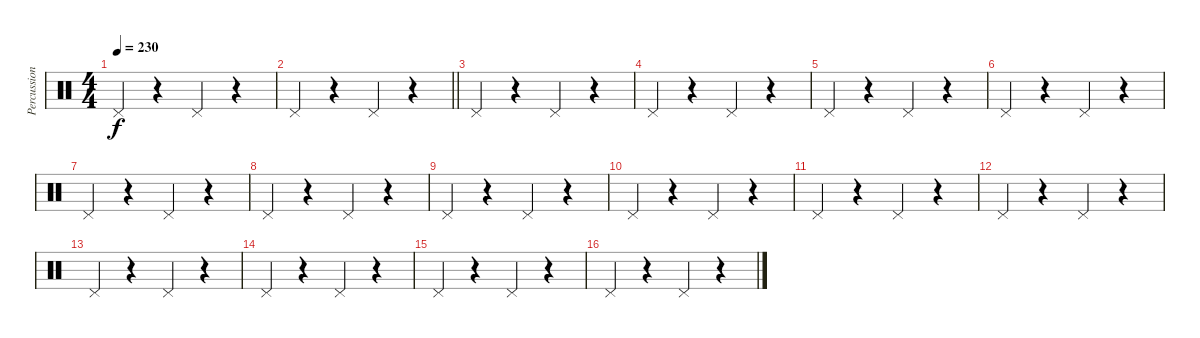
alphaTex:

\track ("Percussion" "Percussion") {instrument percussion}
\staff {score}
\articulation defaults
\ts (4 4)
\tempo 230
\clef neutral
\ks c "Pedal Hi-Hat (hit)".4{dy f}
r.4 "Pedal Hi-Hat (hit)".4 r.4 |
\barLineRight lightlight "Pedal Hi-Hat (hit)".4
r.4 "Pedal Hi-Hat (hit)".4 r.4 |
\section ("" "")
"Pedal Hi-Hat (hit)".4 r.4 "Pedal Hi-Hat (hit)".4 r.4 |
"Pedal Hi-Hat (hit)".4 r.4 "Pedal Hi-Hat (hit)".4 r.4 |
"Pedal Hi-Hat (hit)".4 r.4 "Pedal Hi-Hat (hit)".4 r.4 |
"Pedal Hi-Hat (hit)".4 r.4 "Pedal Hi-Hat (hit)".4 r.4 |
"Pedal Hi-Hat (hit)".4 r.4 "Pedal Hi-Hat (hit)".4 r.4 |
"Pedal Hi-Hat (hit)".4 r.4 "Pedal Hi-Hat (hit)".4 r.4 |
"Pedal Hi-Hat (hit)".4 r.4 "Pedal Hi-Hat (hit)".4 r.4 |
"Pedal Hi-Hat (hit)".4 r.4 "Pedal Hi-Hat (hit)".4 r.4 |
"Pedal Hi-Hat (hit)".4 r.4 "Pedal Hi-Hat (hit)".4 r.4 |
"Pedal Hi-Hat (hit)".4 r.4 "Pedal Hi-Hat (hit)".4 r.4 |
"Pedal Hi-Hat (hit)".4 r.4 "Pedal Hi-Hat (hit)".4 r.4 |
"Pedal Hi-Hat (hit)".4 r.4 "Pedal Hi-Hat (hit)".4 r.4 |
"Pedal Hi-Hat (hit)".4 r.4 "Pedal Hi-Hat (hit)".4 r.4 |
"Pedal Hi-Hat (hit)".4 r.4 "Pedal Hi-Hat (hit)".4 r.4
